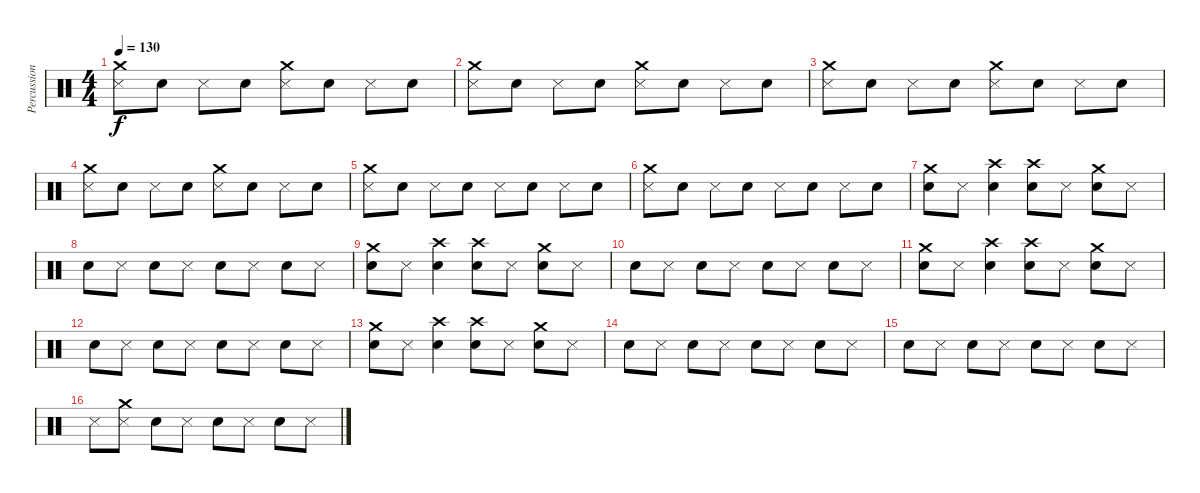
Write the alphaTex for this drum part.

\track ("Percussion" "Percussion") {instrument percussion}
\staff {score}
\articulation defaults
\ts (4 4)
\tempo 130
\clef neutral
\ks c
("Crash medium (hit)" "Metronome (hit)").8{dy f} "Electric Snare (hit)".8 "Metronome (hit)".8 "Electric Snare (hit)".8 ("Crash medium (hit)" "Metronome (hit)").8 "Electric Snare (hit)".8 "Metronome (hit)".8 "Electric Snare (hit)".8 |
("Crash medium (hit)" "Metronome (hit)").8 "Electric Snare (hit)".8 "Metronome (hit)".8 "Electric Snare (hit)".8 ("Crash medium (hit)" "Metronome (hit)").8 "Electric Snare (hit)".8 "Metronome (hit)".8 "Electric Snare (hit)".8 |
("Crash medium (hit)" "Metronome (hit)").8 "Electric Snare (hit)".8 "Metronome (hit)".8 "Electric Snare (hit)".8 ("Crash medium (hit)" "Metronome (hit)").8 "Electric Snare (hit)".8 "Metronome (hit)".8 "Electric Snare (hit)".8 |
("Crash medium (hit)" "Metronome (hit)").8 "Electric Snare (hit)".8 "Metronome (hit)".8 "Electric Snare (hit)".8 ("Crash medium (hit)" "Metronome (hit)").8 "Electric Snare (hit)".8 "Metronome (hit)".8 "Electric Snare (hit)".8 |
("Crash medium (hit)" "Metronome (hit)").8 "Electric Snare (hit)".8 "Metronome (hit)".8 "Electric Snare (hit)".8 "Metronome (hit)".8 "Electric Snare (hit)".8 "Metronome (hit)".8 "Electric Snare (hit)".8 |
("Crash medium (hit)" "Metronome (hit)").8 "Electric Snare (hit)".8 "Metronome (hit)".8 "Electric Snare (hit)".8 "Metronome (hit)".8 "Electric Snare (hit)".8 "Metronome (hit)".8 "Electric Snare (hit)".8 |
("Crash medium (hit)" "Electric Snare (hit)").8 "Metronome (hit)".8 ("Crash high (hit)" "Electric Snare (hit)").4 ("Crash high (hit)" "Electric Snare (hit)").8 "Metronome (hit)".8 ("Crash medium (hit)" "Electric Snare (hit)").8 "Metronome (hit)".8 |
"Electric Snare (hit)".8 "Metronome (hit)".8 "Electric Snare (hit)".8 "Metronome (hit)".8 "Electric Snare (hit)".8 "Metronome (hit)".8 "Electric Snare (hit)".8 "Metronome (hit)".8 |
("Crash medium (hit)" "Electric Snare (hit)").8 "Metronome (hit)".8 ("Crash high (hit)" "Electric Snare (hit)").4 ("Crash high (hit)" "Electric Snare (hit)").8 "Metronome (hit)".8 ("Crash medium (hit)" "Electric Snare (hit)").8 "Metronome (hit)".8 |
"Electric Snare (hit)".8 "Metronome (hit)".8 "Electric Snare (hit)".8 "Metronome (hit)".8 "Electric Snare (hit)".8 "Metronome (hit)".8 "Electric Snare (hit)".8 "Metronome (hit)".8 |
("Crash medium (hit)" "Electric Snare (hit)").8 "Metronome (hit)".8 ("Crash high (hit)" "Electric Snare (hit)").4 ("Crash high (hit)" "Electric Snare (hit)").8 "Metronome (hit)".8 ("Crash medium (hit)" "Electric Snare (hit)").8 "Metronome (hit)".8 |
"Electric Snare (hit)".8 "Metronome (hit)".8 "Electric Snare (hit)".8 "Metronome (hit)".8 "Electric Snare (hit)".8 "Metronome (hit)".8 "Electric Snare (hit)".8 "Metronome (hit)".8 |
("Crash medium (hit)" "Electric Snare (hit)").8 "Metronome (hit)".8 ("Crash high (hit)" "Electric Snare (hit)").4 ("Crash high (hit)" "Electric Snare (hit)").8 "Metronome (hit)".8 ("Crash medium (hit)" "Electric Snare (hit)").8 "Metronome (hit)".8 |
"Electric Snare (hit)".8 "Metronome (hit)".8 "Electric Snare (hit)".8 "Metronome (hit)".8 "Electric Snare (hit)".8 "Metronome (hit)".8 "Electric Snare (hit)".8 "Metronome (hit)".8 |
"Electric Snare (hit)".8 "Metronome (hit)".8 "Electric Snare (hit)".8 "Metronome (hit)".8 "Electric Snare (hit)".8 "Metronome (hit)".8 "Electric Snare (hit)".8 "Metronome (hit)".8 |
"Metronome (hit)".8 ("Crash medium (hit)" "Metronome (hit)").8 "Electric Snare (hit)".8 "Metronome (hit)".8 "Electric Snare (hit)".8 "Metronome (hit)".8 "Electric Snare (hit)".8 "Metronome (hit)".8
